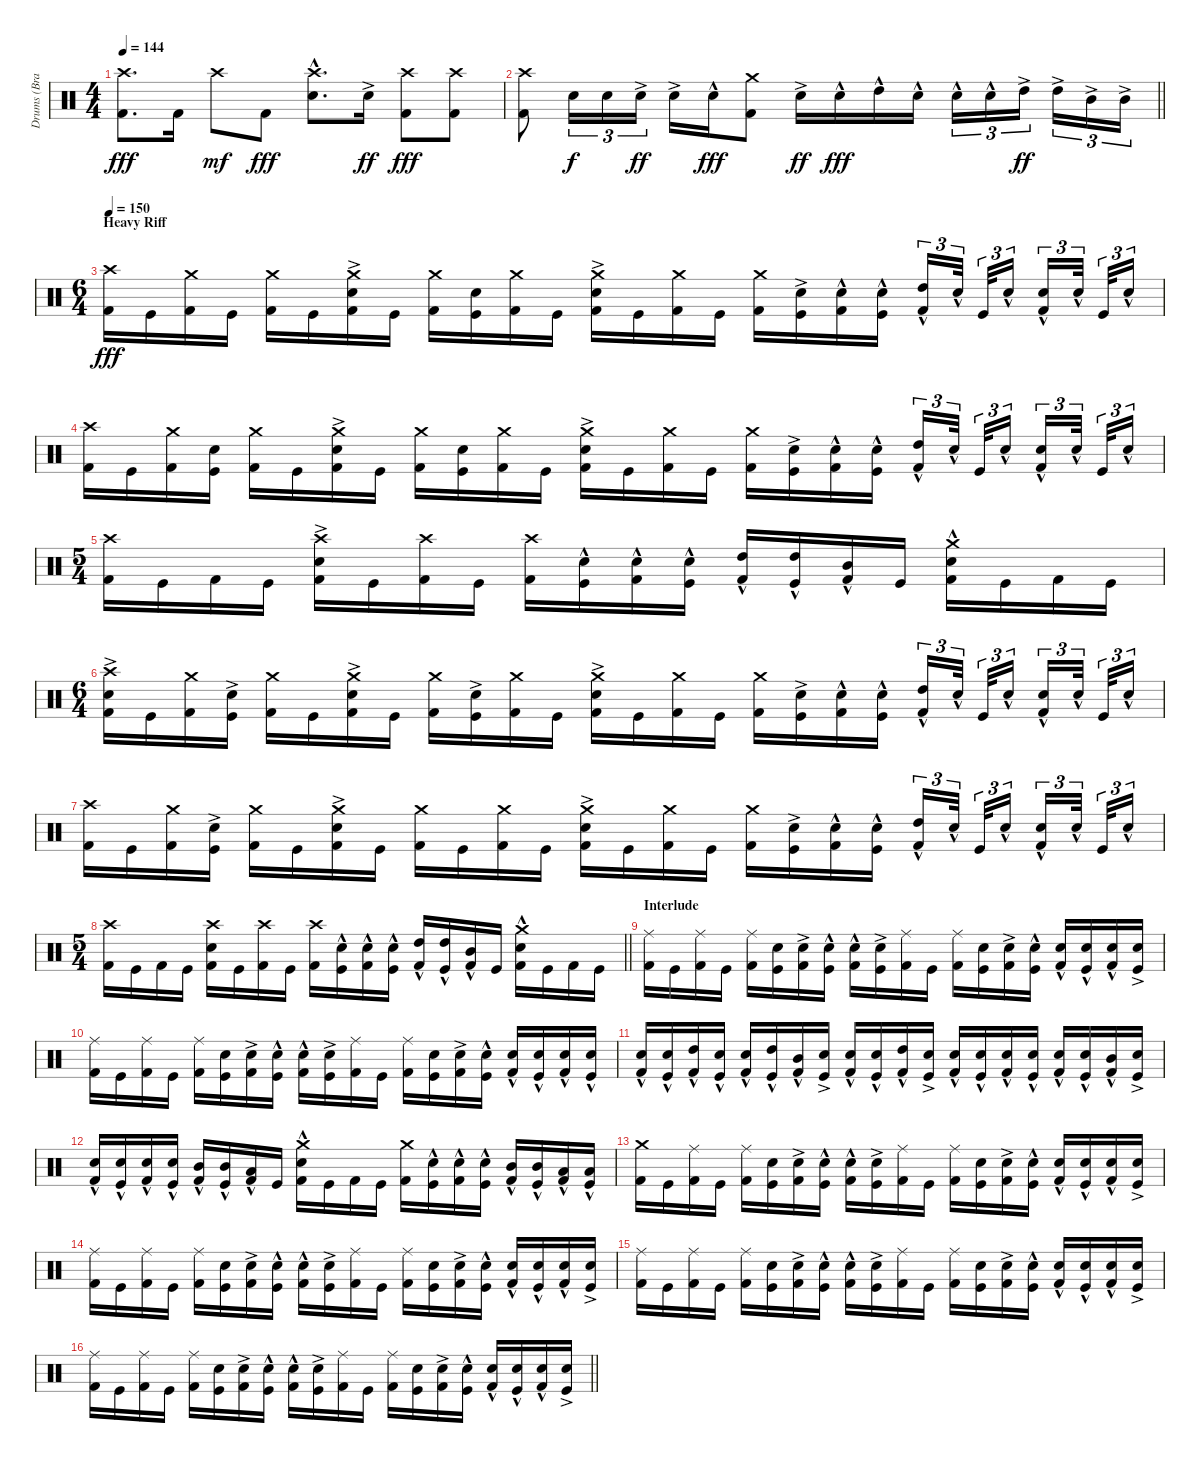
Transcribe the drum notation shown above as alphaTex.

\track ("Drums (Brann Dailor)" "Drums (Bra") {instrument percussion}
\staff {score}
\articulation defaults
\ts (4 4)
\tempo 144
\clef neutral
\ks c
("Crash high (hit)" "Kick (hit) 2").8{d dy fff} "Kick (hit) 2".16 "Crash high (hit)".8{dy mf} "Kick (hit) 2".8{dy fff} ("Crash high (hit)" "Electric Snare (hit)"{hac}).8{d} "Electric Snare (hit)"{ac}.16{dy ff} ("Crash high (hit)" "Kick (hit) 2").8{dy fff} ("Crash high (hit)" "Kick (hit) 2").8 |
\barLineRight lightlight
("Crash high (hit)" "Kick (hit) 2").8 "Electric Snare (hit)".16{tu (3 2) dy f} "Electric Snare (hit)".16{tu (3 2)} "Electric Snare (hit)"{ac}.16{tu (3 2) dy ff} "Electric Snare (hit)"{ac}.16 "Electric Snare (hit)"{hac}.16{dy fff} ("Crash medium (hit)" "Kick (hit) 2").8 "Electric Snare (hit)"{ac}.16{dy ff} "Electric Snare (hit)"{hac}.16{dy fff} "High Tom (hit)"{hac}.16 "Electric Snare (hit)"{hac}.16 "Electric Snare (hit)"{hac}.16{tu (3 2)} "Electric Snare (hit)"{hac}.16{tu (3 2)} "High Tom (hit)"{ac}.16{tu (3 2) dy ff beam splitsecondary} "High Tom (hit)"{ac}.16{tu (3 2)} "Mid Tom (hit)"{ac}.16{tu (3 2)} "Mid Tom (hit)"{ac}.16{tu (3 2)} |
\ts (6 4)
\section ("" "Heavy Riff")
\tempo 150
("Crash high (hit)" "Kick (hit) 2").16{dy fff} "Kick (hit)".16 ("Crash medium (hit)" "Kick (hit) 2").16 "Kick (hit)".16 ("Crash medium (hit)" "Kick (hit) 2").16 "Kick (hit)".16 ("Crash medium (hit)" "Electric Snare (hit)"{ac} "Kick (hit) 2").16 "Kick (hit)".16 ("Crash medium (hit)" "Kick (hit) 2").16 ("Electric Snare (hit)" "Kick (hit)").16 ("Crash medium (hit)" "Kick (hit) 2").16 "Kick (hit)".16 ("Crash medium (hit)" "Electric Snare (hit)"{ac} "Kick (hit) 2").16 "Kick (hit)".16 ("Crash medium (hit)" "Kick (hit) 2").16 "Kick (hit)".16 ("Crash medium (hit)" "Kick (hit) 2").16 ("Electric Snare (hit)"{ac} "Kick (hit)").16 ("Electric Snare (hit)"{hac} "Kick (hit) 2").16 ("Electric Snare (hit)"{hac} "Kick (hit)").16{beam splitsecondary} ("High Tom (hit)"{hac} "Kick (hit) 2").16{tu (3 2)} "Electric Snare (hit)"{hac}.32{tu (3 2) beam splitsecondary} "Kick (hit)".32{tu (3 2)} "Electric Snare (hit)"{hac}.16{tu (3 2) beam splitsecondary} ("Electric Snare (hit)"{hac} "Kick (hit) 2").16{tu (3 2)} "Electric Snare (hit)"{hac}.32{tu (3 2) beam splitsecondary} "Kick (hit)".32{tu (3 2)} "Electric Snare (hit)"{hac}.16{tu (3 2)} |
("Crash high (hit)" "Kick (hit) 2").16 "Kick (hit)".16 ("Crash medium (hit)" "Kick (hit) 2").16 ("Electric Snare (hit)" "Kick (hit)").16 ("Crash medium (hit)" "Kick (hit) 2").16 "Kick (hit)".16 ("Crash medium (hit)" "Electric Snare (hit)"{ac} "Kick (hit) 2").16 "Kick (hit)".16 ("Crash medium (hit)" "Kick (hit) 2").16 ("Electric Snare (hit)" "Kick (hit)").16 ("Crash medium (hit)" "Kick (hit) 2").16 "Kick (hit)".16 ("Crash medium (hit)" "Electric Snare (hit)"{ac} "Kick (hit) 2").16 "Kick (hit)".16 ("Crash medium (hit)" "Kick (hit) 2").16 "Kick (hit)".16 ("Crash medium (hit)" "Kick (hit) 2").16 ("Electric Snare (hit)"{ac} "Kick (hit)").16 ("Electric Snare (hit)"{hac} "Kick (hit) 2").16 ("Electric Snare (hit)"{hac} "Kick (hit)").16{beam splitsecondary} ("High Tom (hit)"{hac} "Kick (hit) 2").16{tu (3 2)} "Electric Snare (hit)"{hac}.32{tu (3 2) beam splitsecondary} "Kick (hit)".32{tu (3 2)} "Electric Snare (hit)"{hac}.16{tu (3 2) beam splitsecondary} ("Electric Snare (hit)"{hac} "Kick (hit) 2").16{tu (3 2)} "Electric Snare (hit)"{hac}.32{tu (3 2) beam splitsecondary} "Kick (hit)".32{tu (3 2)} "Electric Snare (hit)"{hac}.16{tu (3 2)} |
\ts (5 4)
("Crash high (hit)" "Kick (hit) 2").16 "Kick (hit)".16 "Kick (hit) 2".16 "Kick (hit)".16 ("Crash high (hit)" "Electric Snare (hit)"{ac} "Kick (hit) 2").16 "Kick (hit)".16 ("Crash high (hit)" "Kick (hit) 2").16 "Kick (hit)".16 ("Crash high (hit)" "Kick (hit) 2").16 ("Electric Snare (hit)"{hac} "Kick (hit)").16 ("Electric Snare (hit)"{hac} "Kick (hit) 2").16 ("Electric Snare (hit)"{hac} "Kick (hit)").16 ("High Tom (hit)"{hac} "Kick (hit) 2").16 ("High Tom (hit)"{hac} "Kick (hit)").16 ("Mid Tom (hit)"{hac} "Kick (hit) 2").16 "Kick (hit)".16 ("Crash medium (hit)" "Electric Snare (hit)"{hac} "Kick (hit) 2").16 "Kick (hit)".16 "Kick (hit) 2".16 "Kick (hit)".16 |
\ts (6 4)
("Crash high (hit)" "Electric Snare (hit)"{ac} "Kick (hit) 2").16 "Kick (hit)".16 ("Crash medium (hit)" "Kick (hit) 2").16 ("Electric Snare (hit)"{ac} "Kick (hit)").16 ("Crash medium (hit)" "Kick (hit) 2").16 "Kick (hit)".16 ("Crash medium (hit)" "Electric Snare (hit)"{ac} "Kick (hit) 2").16 "Kick (hit)".16 ("Crash medium (hit)" "Kick (hit) 2").16 ("Electric Snare (hit)"{ac} "Kick (hit)").16 ("Crash medium (hit)" "Kick (hit) 2").16 "Kick (hit)".16 ("Crash medium (hit)" "Electric Snare (hit)"{ac} "Kick (hit) 2").16 "Kick (hit)".16 ("Crash medium (hit)" "Kick (hit) 2").16 "Kick (hit)".16 ("Crash medium (hit)" "Kick (hit) 2").16 ("Electric Snare (hit)"{ac} "Kick (hit)").16 ("Electric Snare (hit)"{hac} "Kick (hit) 2").16 ("Electric Snare (hit)"{hac} "Kick (hit)").16{beam splitsecondary} ("High Tom (hit)"{hac} "Kick (hit) 2").16{tu (3 2)} "Electric Snare (hit)"{hac}.32{tu (3 2) beam splitsecondary} "Kick (hit)".32{tu (3 2)} "Electric Snare (hit)"{hac}.16{tu (3 2) beam splitsecondary} ("Electric Snare (hit)"{hac} "Kick (hit) 2").16{tu (3 2)} "Electric Snare (hit)"{hac}.32{tu (3 2) beam splitsecondary} "Kick (hit)".32{tu (3 2)} "Electric Snare (hit)"{hac}.16{tu (3 2)} |
("Crash high (hit)" "Kick (hit) 2").16 "Kick (hit)".16 ("Crash medium (hit)" "Kick (hit) 2").16 ("Electric Snare (hit)"{ac} "Kick (hit)").16 ("Crash medium (hit)" "Kick (hit) 2").16 "Kick (hit)".16 ("Crash medium (hit)" "Electric Snare (hit)"{ac} "Kick (hit) 2").16 "Kick (hit)".16 ("Crash medium (hit)" "Kick (hit) 2").16 "Kick (hit)".16 ("Crash medium (hit)" "Kick (hit) 2").16 "Kick (hit)".16 ("Crash medium (hit)" "Electric Snare (hit)"{ac} "Kick (hit) 2").16 "Kick (hit)".16 ("Crash medium (hit)" "Kick (hit) 2").16 "Kick (hit)".16 ("Crash medium (hit)" "Kick (hit) 2").16 ("Electric Snare (hit)"{ac} "Kick (hit)").16 ("Electric Snare (hit)"{hac} "Kick (hit) 2").16 ("Electric Snare (hit)"{hac} "Kick (hit)").16{beam splitsecondary} ("High Tom (hit)"{hac} "Kick (hit) 2").16{tu (3 2)} "Electric Snare (hit)"{hac}.32{tu (3 2) beam splitsecondary} "Kick (hit)".32{tu (3 2)} "Electric Snare (hit)"{hac}.16{tu (3 2) beam splitsecondary} ("Electric Snare (hit)"{hac} "Kick (hit) 2").16{tu (3 2)} "Electric Snare (hit)"{hac}.32{tu (3 2) beam splitsecondary} "Kick (hit)".32{tu (3 2)} "Electric Snare (hit)"{hac}.16{tu (3 2)} |
\ts (5 4)
\barLineRight lightlight
("Crash high (hit)" "Kick (hit) 2").16 "Kick (hit)".16 "Kick (hit) 2".16 "Kick (hit)".16 ("Crash high (hit)" "Electric Snare (hit)" "Kick (hit) 2").16 "Kick (hit)".16 ("Crash high (hit)" "Kick (hit) 2").16 "Kick (hit)".16 ("Crash high (hit)" "Kick (hit) 2").16 ("Electric Snare (hit)"{hac} "Kick (hit)").16 ("Electric Snare (hit)"{hac} "Kick (hit) 2").16 ("Electric Snare (hit)"{hac} "Kick (hit)").16 ("High Tom (hit)"{hac} "Kick (hit) 2").16 ("High Tom (hit)"{hac} "Kick (hit)").16 ("Mid Tom (hit)"{hac} "Kick (hit) 2").16 "Kick (hit)".16 ("Crash medium (hit)" "Electric Snare (hit)"{hac} "Kick (hit) 2").16 "Kick (hit)".16 "Kick (hit) 2".16 "Kick (hit)".16 |
\section ("" "Interlude")
("Ride (middle)" "Kick (hit) 2").16 "Kick (hit)".16 ("Ride (middle)" "Kick (hit) 2").16 "Kick (hit)".16 ("Ride (middle)" "Kick (hit) 2").16 ("Electric Snare (hit)" "Kick (hit)").16 ("Electric Snare (hit)"{ac} "Kick (hit) 2").16 ("Electric Snare (hit)"{hac} "Kick (hit)").16 ("Electric Snare (hit)"{hac} "Kick (hit) 2").16 ("Electric Snare (hit)"{ac} "Kick (hit)").16 ("Ride (middle)" "Kick (hit) 2").16 "Kick (hit)".16 ("Ride (middle)" "Kick (hit) 2").16 ("Electric Snare (hit)" "Kick (hit)").16 ("Electric Snare (hit)"{ac} "Kick (hit) 2").16 ("Electric Snare (hit)"{hac} "Kick (hit)").16 ("Electric Snare (hit)"{hac} "Kick (hit) 2").16 ("Electric Snare (hit)"{hac} "Kick (hit)").16 ("Electric Snare (hit)"{hac} "Kick (hit) 2").16 ("Electric Snare (hit)"{ac} "Kick (hit)").16 |
("Ride (middle)" "Kick (hit) 2").16 "Kick (hit)".16 ("Ride (middle)" "Kick (hit) 2").16 "Kick (hit)".16 ("Ride (middle)" "Kick (hit) 2").16 ("Electric Snare (hit)" "Kick (hit)").16 ("Electric Snare (hit)"{ac} "Kick (hit) 2").16 ("Electric Snare (hit)"{hac} "Kick (hit)").16 ("Electric Snare (hit)"{hac} "Kick (hit) 2").16 ("Electric Snare (hit)"{ac} "Kick (hit)").16 ("Ride (middle)" "Kick (hit) 2").16 "Kick (hit)".16 ("Ride (middle)" "Kick (hit) 2").16 ("Electric Snare (hit)" "Kick (hit)").16 ("Electric Snare (hit)"{ac} "Kick (hit) 2").16 ("Electric Snare (hit)"{hac} "Kick (hit)").16 ("Electric Snare (hit)"{hac} "Kick (hit) 2").16 ("Electric Snare (hit)"{hac} "Kick (hit)").16 ("Electric Snare (hit)"{hac} "Kick (hit) 2").16 ("Electric Snare (hit)"{hac} "Kick (hit)").16 |
("Electric Snare (hit)"{hac} "Kick (hit) 2").16 ("Electric Snare (hit)"{hac} "Kick (hit)").16 ("High Tom (hit)"{hac} "Kick (hit) 2").16 ("Electric Snare (hit)"{hac} "Kick (hit)").16 ("Electric Snare (hit)"{hac} "Kick (hit) 2").16 ("High Tom (hit)"{hac} "Kick (hit)").16 ("Mid Tom (hit)"{hac} "Kick (hit) 2").16 ("Electric Snare (hit)"{ac} "Kick (hit)").16 ("Electric Snare (hit)"{hac} "Kick (hit) 2").16 ("Electric Snare (hit)"{hac} "Kick (hit)").16 ("High Tom (hit)"{hac} "Kick (hit) 2").16 ("Electric Snare (hit)"{ac} "Kick (hit)").16 ("Electric Snare (hit)"{hac} "Kick (hit) 2").16 ("Electric Snare (hit)"{hac} "Kick (hit)").16 ("Electric Snare (hit)"{hac} "Kick (hit) 2").16 ("Electric Snare (hit)"{hac} "Kick (hit)").16 ("Electric Snare (hit)"{hac} "Kick (hit) 2").16 ("Electric Snare (hit)"{hac} "Kick (hit)").16 ("Mid Tom (hit)"{hac} "Kick (hit) 2").16 ("Electric Snare (hit)"{ac} "Kick (hit)").16 |
("Electric Snare (hit)"{hac} "Kick (hit) 2").16 ("Electric Snare (hit)"{hac} "Kick (hit)").16 ("Electric Snare (hit)"{hac} "Kick (hit) 2").16 ("Electric Snare (hit)"{hac} "Kick (hit)").16 ("Mid Tom (hit)"{hac} "Kick (hit) 2").16 ("Mid Tom (hit)"{hac} "Kick (hit)").16 ("Low Tom (hit)"{hac} "Kick (hit) 2").16 "Kick (hit)".16 ("Crash medium (hit)" "Electric Snare (hit)"{hac} "Kick (hit) 2").16 "Kick (hit)".16 "Kick (hit) 2".16 "Kick (hit)".16 ("Crash medium (hit)" "Kick (hit) 2").16 ("Electric Snare (hit)"{hac} "Kick (hit)").16 ("Electric Snare (hit)"{hac} "Kick (hit) 2").16 ("Electric Snare (hit)"{hac} "Kick (hit)").16 ("Mid Tom (hit)"{hac} "Kick (hit) 2").16 ("Mid Tom (hit)"{hac} "Kick (hit)").16 ("Low Tom (hit)"{hac} "Kick (hit) 2").16 ("Low Tom (hit)"{hac} "Kick (hit)").16 |
("Crash medium (hit)" "Kick (hit) 2").16 "Kick (hit)".16 ("Ride (middle)" "Kick (hit) 2").16 "Kick (hit)".16 ("Ride (middle)" "Kick (hit) 2").16 ("Electric Snare (hit)" "Kick (hit)").16 ("Electric Snare (hit)"{ac} "Kick (hit) 2").16 ("Electric Snare (hit)"{hac} "Kick (hit)").16 ("Electric Snare (hit)"{hac} "Kick (hit) 2").16 ("Electric Snare (hit)"{ac} "Kick (hit)").16 ("Ride (middle)" "Kick (hit) 2").16 "Kick (hit)".16 ("Ride (middle)" "Kick (hit) 2").16 ("Electric Snare (hit)" "Kick (hit)").16 ("Electric Snare (hit)"{ac} "Kick (hit) 2").16 ("Electric Snare (hit)"{hac} "Kick (hit)").16 ("Electric Snare (hit)"{hac} "Kick (hit) 2").16 ("Electric Snare (hit)"{hac} "Kick (hit)").16 ("Electric Snare (hit)"{hac} "Kick (hit) 2").16 ("Electric Snare (hit)"{ac} "Kick (hit)").16 |
("Ride (middle)" "Kick (hit) 2").16 "Kick (hit)".16 ("Ride (middle)" "Kick (hit) 2").16 "Kick (hit)".16 ("Ride (middle)" "Kick (hit) 2").16 ("Electric Snare (hit)" "Kick (hit)").16 ("Electric Snare (hit)"{ac} "Kick (hit) 2").16 ("Electric Snare (hit)"{hac} "Kick (hit)").16 ("Electric Snare (hit)"{hac} "Kick (hit) 2").16 ("Electric Snare (hit)"{ac} "Kick (hit)").16 ("Ride (middle)" "Kick (hit) 2").16 "Kick (hit)".16 ("Ride (middle)" "Kick (hit) 2").16 ("Electric Snare (hit)" "Kick (hit)").16 ("Electric Snare (hit)"{ac} "Kick (hit) 2").16 ("Electric Snare (hit)"{hac} "Kick (hit)").16 ("Electric Snare (hit)"{hac} "Kick (hit) 2").16 ("Electric Snare (hit)"{hac} "Kick (hit)").16 ("Electric Snare (hit)"{hac} "Kick (hit) 2").16 ("Electric Snare (hit)"{ac} "Kick (hit)").16 |
("Ride (middle)" "Kick (hit) 2").16 "Kick (hit)".16 ("Ride (middle)" "Kick (hit) 2").16 "Kick (hit)".16 ("Ride (middle)" "Kick (hit) 2").16 ("Electric Snare (hit)" "Kick (hit)").16 ("Electric Snare (hit)"{ac} "Kick (hit) 2").16 ("Electric Snare (hit)"{hac} "Kick (hit)").16 ("Electric Snare (hit)"{hac} "Kick (hit) 2").16 ("Electric Snare (hit)"{ac} "Kick (hit)").16 ("Ride (middle)" "Kick (hit) 2").16 "Kick (hit)".16 ("Ride (middle)" "Kick (hit) 2").16 ("Electric Snare (hit)" "Kick (hit)").16 ("Electric Snare (hit)"{ac} "Kick (hit) 2").16 ("Electric Snare (hit)"{hac} "Kick (hit)").16 ("Electric Snare (hit)"{hac} "Kick (hit) 2").16 ("Electric Snare (hit)"{hac} "Kick (hit)").16 ("Electric Snare (hit)"{hac} "Kick (hit) 2").16 ("Electric Snare (hit)"{ac} "Kick (hit)").16 |
\barLineRight lightlight
("Ride (middle)" "Kick (hit) 2").16 "Kick (hit)".16 ("Ride (middle)" "Kick (hit) 2").16 "Kick (hit)".16 ("Ride (middle)" "Kick (hit) 2").16 ("Electric Snare (hit)" "Kick (hit)").16 ("Electric Snare (hit)"{ac} "Kick (hit) 2").16 ("Electric Snare (hit)"{hac} "Kick (hit)").16 ("Electric Snare (hit)"{hac} "Kick (hit) 2").16 ("Electric Snare (hit)"{ac} "Kick (hit)").16 ("Ride (middle)" "Kick (hit) 2").16 "Kick (hit)".16 ("Ride (middle)" "Kick (hit) 2").16 ("Electric Snare (hit)" "Kick (hit)").16 ("Electric Snare (hit)"{ac} "Kick (hit) 2").16 ("Electric Snare (hit)"{hac} "Kick (hit)").16 ("Electric Snare (hit)"{hac} "Kick (hit) 2").16 ("Electric Snare (hit)"{hac} "Kick (hit)").16 ("Electric Snare (hit)"{hac} "Kick (hit) 2").16 ("Electric Snare (hit)"{ac} "Kick (hit)").16
